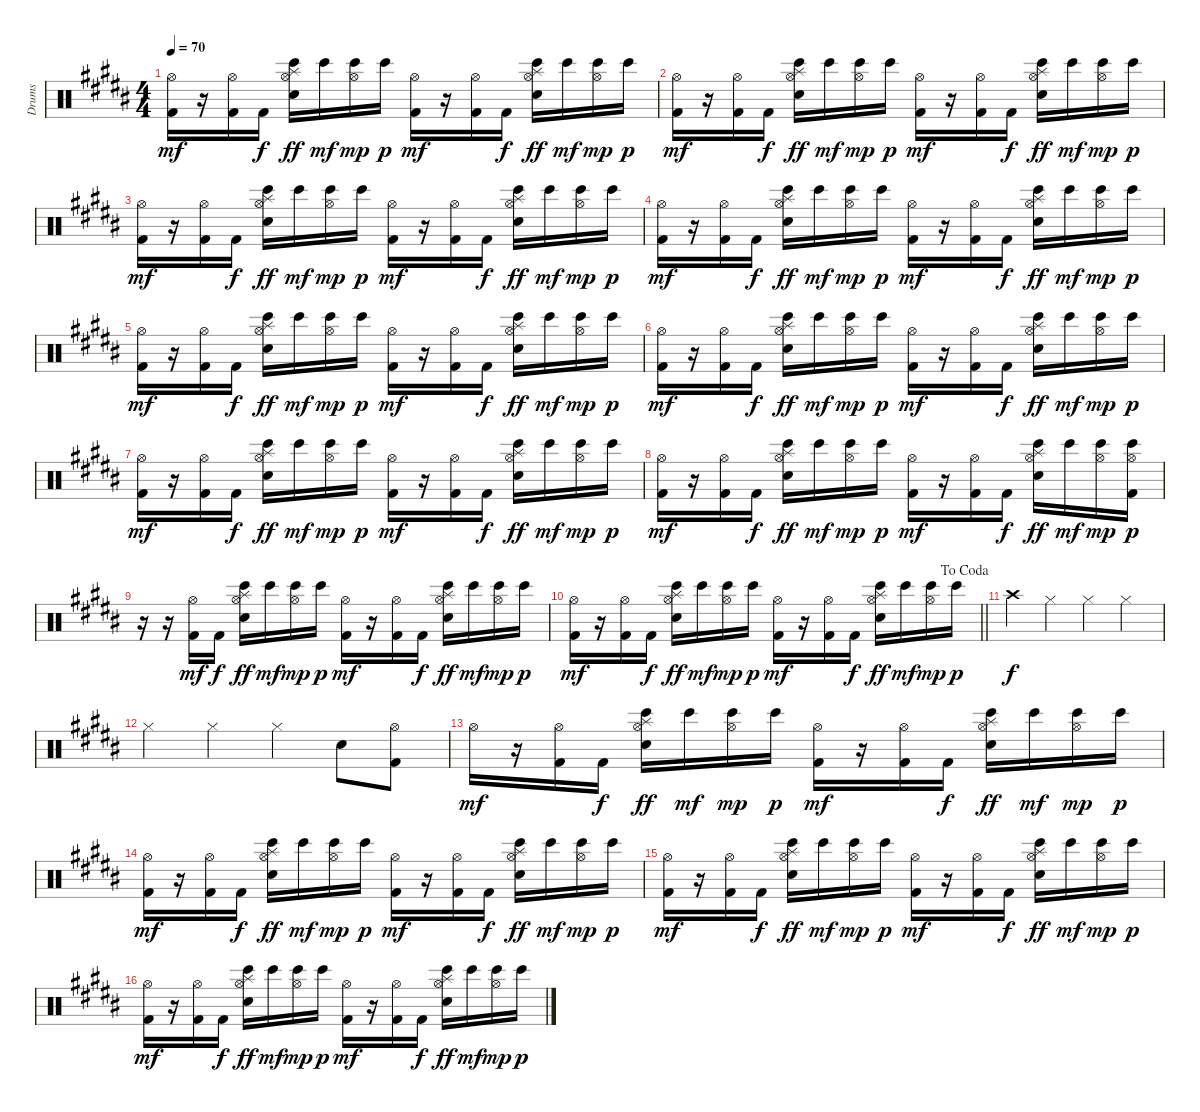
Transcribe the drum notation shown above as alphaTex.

\track ("Drums" "Drums") {instrument percussion}
\staff {score}
\articulation defaults
\ts (4 4)
\tempo 70
\clef neutral
\ks b
("Hi-Hat (open)" "Kick (hit) 2").16{dy mf} r.16 ("Hi-Hat (open)" "Kick (hit) 2").16 "Kick (hit) 2".16{dy f} ("Hi-Hat (open)" "Splash (hit)" "Snare (hit) 2" "Bongo High (hit)").16{dy ff} "Bongo High (hit)".16{dy mf} ("Hi-Hat (open)" "Bongo High (hit)").16{dy mp} "Bongo High (hit)".16{dy p} ("Hi-Hat (open)" "Kick (hit) 2").16{dy mf} r.16 ("Hi-Hat (open)" "Kick (hit) 2").16 "Kick (hit) 2".16{dy f} ("Hi-Hat (open)" "Splash (hit)" "Snare (hit) 2" "Bongo High (hit)").16{dy ff} "Bongo High (hit)".16{dy mf} ("Hi-Hat (open)" "Bongo High (hit)").16{dy mp} "Bongo High (hit)".16{dy p} |
("Hi-Hat (open)" "Kick (hit) 2").16{dy mf} r.16 ("Hi-Hat (open)" "Kick (hit) 2").16 "Kick (hit) 2".16{dy f} ("Hi-Hat (open)" "Splash (hit)" "Snare (hit) 2" "Bongo High (hit)").16{dy ff} "Bongo High (hit)".16{dy mf} ("Hi-Hat (open)" "Bongo High (hit)").16{dy mp} "Bongo High (hit)".16{dy p} ("Hi-Hat (open)" "Kick (hit) 2").16{dy mf} r.16 ("Hi-Hat (open)" "Kick (hit) 2").16 "Kick (hit) 2".16{dy f} ("Hi-Hat (open)" "Splash (hit)" "Snare (hit) 2" "Bongo High (hit)").16{dy ff} "Bongo High (hit)".16{dy mf} ("Hi-Hat (open)" "Bongo High (hit)").16{dy mp} "Bongo High (hit)".16{dy p} |
("Hi-Hat (open)" "Kick (hit) 2").16{dy mf} r.16 ("Hi-Hat (open)" "Kick (hit) 2").16 "Kick (hit) 2".16{dy f} ("Hi-Hat (open)" "Splash (hit)" "Snare (hit) 2" "Bongo High (hit)").16{dy ff} "Bongo High (hit)".16{dy mf} ("Hi-Hat (open)" "Bongo High (hit)").16{dy mp} "Bongo High (hit)".16{dy p} ("Hi-Hat (open)" "Kick (hit) 2").16{dy mf} r.16 ("Hi-Hat (open)" "Kick (hit) 2").16 "Kick (hit) 2".16{dy f} ("Hi-Hat (open)" "Splash (hit)" "Snare (hit) 2" "Bongo High (hit)").16{dy ff} "Bongo High (hit)".16{dy mf} ("Hi-Hat (open)" "Bongo High (hit)").16{dy mp} "Bongo High (hit)".16{dy p} |
("Hi-Hat (open)" "Kick (hit) 2").16{dy mf} r.16 ("Hi-Hat (open)" "Kick (hit) 2").16 "Kick (hit) 2".16{dy f} ("Hi-Hat (open)" "Splash (hit)" "Snare (hit) 2" "Bongo High (hit)").16{dy ff} "Bongo High (hit)".16{dy mf} ("Hi-Hat (open)" "Bongo High (hit)").16{dy mp} "Bongo High (hit)".16{dy p} ("Hi-Hat (open)" "Kick (hit) 2").16{dy mf} r.16 ("Hi-Hat (open)" "Kick (hit) 2").16 "Kick (hit) 2".16{dy f} ("Hi-Hat (open)" "Splash (hit)" "Snare (hit) 2" "Bongo High (hit)").16{dy ff} "Bongo High (hit)".16{dy mf} ("Hi-Hat (open)" "Bongo High (hit)").16{dy mp} "Bongo High (hit)".16{dy p} |
("Hi-Hat (open)" "Kick (hit) 2").16{dy mf} r.16 ("Hi-Hat (open)" "Kick (hit) 2").16 "Kick (hit) 2".16{dy f} ("Hi-Hat (open)" "Splash (hit)" "Snare (hit) 2" "Bongo High (hit)").16{dy ff} "Bongo High (hit)".16{dy mf} ("Hi-Hat (open)" "Bongo High (hit)").16{dy mp} "Bongo High (hit)".16{dy p} ("Hi-Hat (open)" "Kick (hit) 2").16{dy mf} r.16 ("Hi-Hat (open)" "Kick (hit) 2").16 "Kick (hit) 2".16{dy f} ("Hi-Hat (open)" "Splash (hit)" "Snare (hit) 2" "Bongo High (hit)").16{dy ff} "Bongo High (hit)".16{dy mf} ("Hi-Hat (open)" "Bongo High (hit)").16{dy mp} "Bongo High (hit)".16{dy p} |
("Hi-Hat (open)" "Kick (hit) 2").16{dy mf} r.16 ("Hi-Hat (open)" "Kick (hit) 2").16 "Kick (hit) 2".16{dy f} ("Hi-Hat (open)" "Splash (hit)" "Snare (hit) 2" "Bongo High (hit)").16{dy ff} "Bongo High (hit)".16{dy mf} ("Hi-Hat (open)" "Bongo High (hit)").16{dy mp} "Bongo High (hit)".16{dy p} ("Hi-Hat (open)" "Kick (hit) 2").16{dy mf} r.16 ("Hi-Hat (open)" "Kick (hit) 2").16 "Kick (hit) 2".16{dy f} ("Hi-Hat (open)" "Splash (hit)" "Snare (hit) 2" "Bongo High (hit)").16{dy ff} "Bongo High (hit)".16{dy mf} ("Hi-Hat (open)" "Bongo High (hit)").16{dy mp} "Bongo High (hit)".16{dy p} |
("Hi-Hat (open)" "Kick (hit) 2").16{dy mf} r.16 ("Hi-Hat (open)" "Kick (hit) 2").16 "Kick (hit) 2".16{dy f} ("Hi-Hat (open)" "Splash (hit)" "Snare (hit) 2" "Bongo High (hit)").16{dy ff} "Bongo High (hit)".16{dy mf} ("Hi-Hat (open)" "Bongo High (hit)").16{dy mp} "Bongo High (hit)".16{dy p} ("Hi-Hat (open)" "Kick (hit) 2").16{dy mf} r.16 ("Hi-Hat (open)" "Kick (hit) 2").16 "Kick (hit) 2".16{dy f} ("Hi-Hat (open)" "Splash (hit)" "Snare (hit) 2" "Bongo High (hit)").16{dy ff} "Bongo High (hit)".16{dy mf} ("Hi-Hat (open)" "Bongo High (hit)").16{dy mp} "Bongo High (hit)".16{dy p} |
("Hi-Hat (open)" "Kick (hit) 2").16{dy mf} r.16 ("Hi-Hat (open)" "Kick (hit) 2").16 "Kick (hit) 2".16{dy f} ("Hi-Hat (open)" "Splash (hit)" "Snare (hit) 2" "Bongo High (hit)").16{dy ff} "Bongo High (hit)".16{dy mf} ("Hi-Hat (open)" "Bongo High (hit)").16{dy mp} "Bongo High (hit)".16{dy p} ("Hi-Hat (open)" "Kick (hit) 2").16{dy mf} r.16 ("Hi-Hat (open)" "Kick (hit) 2").16 "Kick (hit) 2".16{dy f} ("Hi-Hat (open)" "Splash (hit)" "Snare (hit) 2" "Bongo High (hit)").16{dy ff} "Bongo High (hit)".16{dy mf} ("Hi-Hat (open)" "Bongo High (hit)").16{dy mp} ("Hi-Hat (open)" "Bongo High (hit)" "Kick (hit) 2").16{dy p} |
r.16 r.16 ("Hi-Hat (open)" "Kick (hit) 2").16{dy mf} "Kick (hit) 2".16{dy f} ("Hi-Hat (open)" "Splash (hit)" "Snare (hit) 2" "Bongo High (hit)").16{dy ff} "Bongo High (hit)".16{dy mf} ("Hi-Hat (open)" "Bongo High (hit)").16{dy mp} "Bongo High (hit)".16{dy p} ("Hi-Hat (open)" "Kick (hit) 2").16{dy mf} r.16 ("Hi-Hat (open)" "Kick (hit) 2").16 "Kick (hit) 2".16{dy f} ("Hi-Hat (open)" "Splash (hit)" "Snare (hit) 2" "Bongo High (hit)").16{dy ff} "Bongo High (hit)".16{dy mf} ("Hi-Hat (open)" "Bongo High (hit)").16{dy mp} "Bongo High (hit)".16{dy p} |
\jump dacoda
\barLineRight lightlight
("Hi-Hat (open)" "Kick (hit) 2").16{dy mf} r.16 ("Hi-Hat (open)" "Kick (hit) 2").16 "Kick (hit) 2".16{dy f} ("Hi-Hat (open)" "Splash (hit)" "Snare (hit) 2" "Bongo High (hit)").16{dy ff} "Bongo High (hit)".16{dy mf} ("Hi-Hat (open)" "Bongo High (hit)").16{dy mp} "Bongo High (hit)".16{dy p} ("Hi-Hat (open)" "Kick (hit) 2").16{dy mf} r.16 ("Hi-Hat (open)" "Kick (hit) 2").16 "Kick (hit) 2".16{dy f} ("Hi-Hat (open)" "Splash (hit)" "Snare (hit) 2" "Bongo High (hit)").16{dy ff} "Bongo High (hit)".16{dy mf} ("Hi-Hat (open)" "Bongo High (hit)").16{dy mp} "Bongo High (hit)".16{dy p} |
"Crash high (hit)".4{dy f} "Hi-Hat (closed)".4 "Hi-Hat (closed)".4 "Hi-Hat (closed)".4 |
"Hi-Hat (closed)".4 "Hi-Hat (closed)".4 "Hi-Hat (closed)".4 "Electric Snare (hit)".8 ("Hi-Hat (open)" "Kick (hit) 2").8 |
"Hi-Hat (open)".16{dy mf} r.16 ("Hi-Hat (open)" "Kick (hit) 2").16 "Kick (hit) 2".16{dy f} ("Hi-Hat (open)" "Splash (hit)" "Snare (hit) 2" "Bongo High (hit)").16{dy ff} "Bongo High (hit)".16{dy mf} ("Hi-Hat (open)" "Bongo High (hit)").16{dy mp} "Bongo High (hit)".16{dy p} ("Hi-Hat (open)" "Kick (hit) 2").16{dy mf} r.16 ("Hi-Hat (open)" "Kick (hit) 2").16 "Kick (hit) 2".16{dy f} ("Hi-Hat (open)" "Splash (hit)" "Snare (hit) 2" "Bongo High (hit)").16{dy ff} "Bongo High (hit)".16{dy mf} ("Hi-Hat (open)" "Bongo High (hit)").16{dy mp} "Bongo High (hit)".16{dy p} |
("Hi-Hat (open)" "Kick (hit) 2").16{dy mf} r.16 ("Hi-Hat (open)" "Kick (hit) 2").16 "Kick (hit) 2".16{dy f} ("Hi-Hat (open)" "Splash (hit)" "Snare (hit) 2" "Bongo High (hit)").16{dy ff} "Bongo High (hit)".16{dy mf} ("Hi-Hat (open)" "Bongo High (hit)").16{dy mp} "Bongo High (hit)".16{dy p} ("Hi-Hat (open)" "Kick (hit) 2").16{dy mf} r.16 ("Hi-Hat (open)" "Kick (hit) 2").16 "Kick (hit) 2".16{dy f} ("Hi-Hat (open)" "Splash (hit)" "Snare (hit) 2" "Bongo High (hit)").16{dy ff} "Bongo High (hit)".16{dy mf} ("Hi-Hat (open)" "Bongo High (hit)").16{dy mp} "Bongo High (hit)".16{dy p} |
("Hi-Hat (open)" "Kick (hit) 2").16{dy mf} r.16 ("Hi-Hat (open)" "Kick (hit) 2").16 "Kick (hit) 2".16{dy f} ("Hi-Hat (open)" "Splash (hit)" "Snare (hit) 2" "Bongo High (hit)").16{dy ff} "Bongo High (hit)".16{dy mf} ("Hi-Hat (open)" "Bongo High (hit)").16{dy mp} "Bongo High (hit)".16{dy p} ("Hi-Hat (open)" "Kick (hit) 2").16{dy mf} r.16 ("Hi-Hat (open)" "Kick (hit) 2").16 "Kick (hit) 2".16{dy f} ("Hi-Hat (open)" "Splash (hit)" "Snare (hit) 2" "Bongo High (hit)").16{dy ff} "Bongo High (hit)".16{dy mf} ("Hi-Hat (open)" "Bongo High (hit)").16{dy mp} "Bongo High (hit)".16{dy p} |
("Hi-Hat (open)" "Kick (hit) 2").16{dy mf} r.16 ("Hi-Hat (open)" "Kick (hit) 2").16 "Kick (hit) 2".16{dy f} ("Hi-Hat (open)" "Splash (hit)" "Snare (hit) 2" "Bongo High (hit)").16{dy ff} "Bongo High (hit)".16{dy mf} ("Hi-Hat (open)" "Bongo High (hit)").16{dy mp} "Bongo High (hit)".16{dy p} ("Hi-Hat (open)" "Kick (hit) 2").16{dy mf} r.16 ("Hi-Hat (open)" "Kick (hit) 2").16 "Kick (hit) 2".16{dy f} ("Hi-Hat (open)" "Splash (hit)" "Snare (hit) 2" "Bongo High (hit)").16{dy ff} "Bongo High (hit)".16{dy mf} ("Hi-Hat (open)" "Bongo High (hit)").16{dy mp} "Bongo High (hit)".16{dy p}
